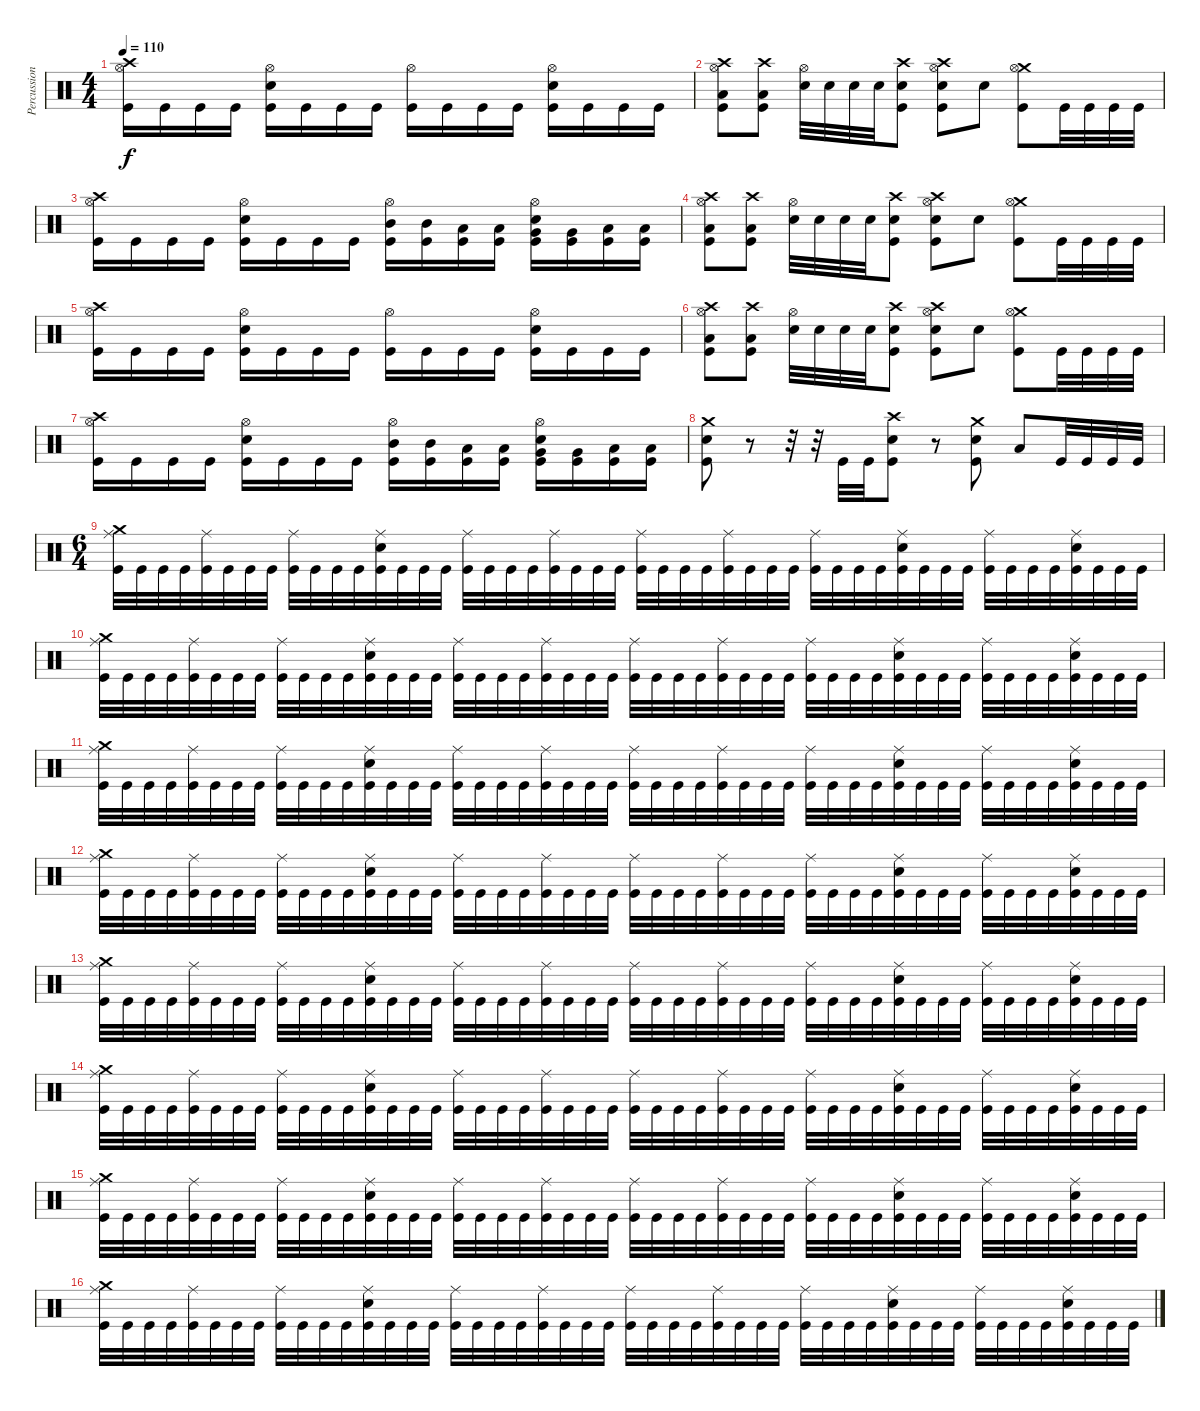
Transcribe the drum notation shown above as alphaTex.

\track ("Percussion" "Percussion") {instrument percussion}
\staff {score}
\articulation defaults
\ts (4 4)
\tempo 110
\clef neutral
\ks c
("Crash high (hit)" "Hi-Hat (open)" "Kick (hit)").16{dy f} "Kick (hit)".16 "Kick (hit)".16 "Kick (hit)".16 ("Electric Snare (hit)" "Hi-Hat (open)" "Kick (hit)").16 "Kick (hit)".16 "Kick (hit)".16 "Kick (hit)".16 ("Hi-Hat (open)" "Kick (hit)").16 "Kick (hit)".16 "Kick (hit)".16 "Kick (hit)".16 ("Electric Snare (hit)" "Hi-Hat (open)" "Kick (hit)").16 "Kick (hit)".16 "Kick (hit)".16 "Kick (hit)".16 |
("Crash high (hit)" "Low Floor Tom (hit)" "Hi-Hat (open)" "Kick (hit)").8 ("Crash high (hit)" "Low Floor Tom (hit)" "Kick (hit)").8 ("Electric Snare (hit)" "Hi-Hat (open)").32 "Electric Snare (hit)".32 "Electric Snare (hit)".32 "Electric Snare (hit)".32 ("Crash high (hit)" "Electric Snare (hit)" "Kick (hit)").8 ("Crash high (hit)" "Electric Snare (hit)" "Hi-Hat (open)" "Kick (hit)").8 "Electric Snare (hit)".8 ("Crash medium (hit)" "Hi-Hat (open)" "Kick (hit)").8 "Kick (hit)".32 "Kick (hit)".32 "Kick (hit)".32 "Kick (hit)".32 |
("Crash high (hit)" "Hi-Hat (open)" "Kick (hit)").16 "Kick (hit)".16 "Kick (hit)".16 "Kick (hit)".16 ("Electric Snare (hit)" "Hi-Hat (open)" "Kick (hit)").16 "Kick (hit)".16 "Kick (hit)".16 "Kick (hit)".16 ("Mid Tom (hit)" "Hi-Hat (open)" "Kick (hit)").16 ("Mid Tom (hit)" "Kick (hit)").16 ("Low Tom (hit)" "Kick (hit)").16 ("Low Tom (hit)" "Kick (hit)").16 ("Electric Snare (hit)" "Very Low Tom (hit)" "Hi-Hat (open)" "Kick (hit)").16 ("Very Low Tom (hit)" "Kick (hit)").16 ("Low Floor Tom (hit)" "Kick (hit)").16 ("Low Floor Tom (hit)" "Kick (hit)").16 |
("Crash high (hit)" "Low Floor Tom (hit)" "Hi-Hat (open)" "Kick (hit)").8 ("Crash high (hit)" "Low Floor Tom (hit)" "Kick (hit)").8 ("Electric Snare (hit)" "Hi-Hat (open)").32 "Electric Snare (hit)".32 "Electric Snare (hit)".32 "Electric Snare (hit)".32 ("Crash high (hit)" "Electric Snare (hit)" "Kick (hit)").8 ("Crash high (hit)" "Electric Snare (hit)" "Hi-Hat (open)" "Kick (hit)").8 "Electric Snare (hit)".8 ("Crash medium (hit)" "Hi-Hat (open)" "Kick (hit)").8 "Kick (hit)".32 "Kick (hit)".32 "Kick (hit)".32 "Kick (hit)".32 |
("Crash high (hit)" "Hi-Hat (open)" "Kick (hit)").16 "Kick (hit)".16 "Kick (hit)".16 "Kick (hit)".16 ("Electric Snare (hit)" "Hi-Hat (open)" "Kick (hit)").16 "Kick (hit)".16 "Kick (hit)".16 "Kick (hit)".16 ("Hi-Hat (open)" "Kick (hit)").16 "Kick (hit)".16 "Kick (hit)".16 "Kick (hit)".16 ("Electric Snare (hit)" "Hi-Hat (open)" "Kick (hit)").16 "Kick (hit)".16 "Kick (hit)".16 "Kick (hit)".16 |
("Crash high (hit)" "Low Floor Tom (hit)" "Hi-Hat (open)" "Kick (hit)").8 ("Crash high (hit)" "Low Floor Tom (hit)" "Kick (hit)").8 ("Electric Snare (hit)" "Hi-Hat (open)").32 "Electric Snare (hit)".32 "Electric Snare (hit)".32 "Electric Snare (hit)".32 ("Crash high (hit)" "Electric Snare (hit)" "Kick (hit)").8 ("Crash high (hit)" "Electric Snare (hit)" "Hi-Hat (open)" "Kick (hit)").8 "Electric Snare (hit)".8 ("Crash medium (hit)" "Hi-Hat (open)" "Kick (hit)").8 "Kick (hit)".32 "Kick (hit)".32 "Kick (hit)".32 "Kick (hit)".32 |
("Crash high (hit)" "Hi-Hat (open)" "Kick (hit)").16 "Kick (hit)".16 "Kick (hit)".16 "Kick (hit)".16 ("Electric Snare (hit)" "Hi-Hat (open)" "Kick (hit)").16 "Kick (hit)".16 "Kick (hit)".16 "Kick (hit)".16 ("Mid Tom (hit)" "Hi-Hat (open)" "Kick (hit)").16 ("Mid Tom (hit)" "Kick (hit)").16 ("Low Tom (hit)" "Kick (hit)").16 ("Low Tom (hit)" "Kick (hit)").16 ("Electric Snare (hit)" "Very Low Tom (hit)" "Hi-Hat (open)" "Kick (hit)").16 ("Very Low Tom (hit)" "Kick (hit)").16 ("Low Floor Tom (hit)" "Kick (hit)").16 ("Low Floor Tom (hit)" "Kick (hit)").16 |
("Crash medium (hit)" "Electric Snare (hit)" "Kick (hit)").8 r.8 r.32 r.32 "Kick (hit)".32 "Kick (hit)".32 ("Crash high (hit)" "Electric Snare (hit)" "Kick (hit)").8 r.8 ("Crash medium (hit)" "Electric Snare (hit)" "Kick (hit)").8 "Low Floor Tom (hit)".8 "Kick (hit)".32 "Kick (hit)".32 "Kick (hit)".32 "Kick (hit)".32 |
\ts (6 4)
("Crash medium (hit)" "Ride (middle)" "Kick (hit)").32 "Kick (hit)".32 "Kick (hit)".32 "Kick (hit)".32 ("Ride (middle)" "Kick (hit)").32 "Kick (hit)".32 "Kick (hit)".32 "Kick (hit)".32 ("Ride (middle)" "Kick (hit)").32 "Kick (hit)".32 "Kick (hit)".32 "Kick (hit)".32 ("Ride (middle)" "Electric Snare (hit)" "Kick (hit)").32 "Kick (hit)".32 "Kick (hit)".32 "Kick (hit)".32 ("Ride (middle)" "Kick (hit)").32 "Kick (hit)".32 "Kick (hit)".32 "Kick (hit)".32 ("Ride (middle)" "Kick (hit)").32 "Kick (hit)".32 "Kick (hit)".32 "Kick (hit)".32 ("Ride (middle)" "Kick (hit)").32 "Kick (hit)".32 "Kick (hit)".32 "Kick (hit)".32 ("Ride (middle)" "Kick (hit)").32 "Kick (hit)".32 "Kick (hit)".32 "Kick (hit)".32 ("Ride (middle)" "Kick (hit)").32 "Kick (hit)".32 "Kick (hit)".32 "Kick (hit)".32 ("Ride (middle)" "Electric Snare (hit)" "Kick (hit)").32 "Kick (hit)".32 "Kick (hit)".32 "Kick (hit)".32 ("Ride (middle)" "Kick (hit)").32 "Kick (hit)".32 "Kick (hit)".32 "Kick (hit)".32 ("Ride (middle)" "Electric Snare (hit)" "Kick (hit)").32 "Kick (hit)".32 "Kick (hit)".32 "Kick (hit)".32 |
("Crash medium (hit)" "Ride (middle)" "Kick (hit)").32 "Kick (hit)".32 "Kick (hit)".32 "Kick (hit)".32 ("Ride (middle)" "Kick (hit)").32 "Kick (hit)".32 "Kick (hit)".32 "Kick (hit)".32 ("Ride (middle)" "Kick (hit)").32 "Kick (hit)".32 "Kick (hit)".32 "Kick (hit)".32 ("Ride (middle)" "Electric Snare (hit)" "Kick (hit)").32 "Kick (hit)".32 "Kick (hit)".32 "Kick (hit)".32 ("Ride (middle)" "Kick (hit)").32 "Kick (hit)".32 "Kick (hit)".32 "Kick (hit)".32 ("Ride (middle)" "Kick (hit)").32 "Kick (hit)".32 "Kick (hit)".32 "Kick (hit)".32 ("Ride (middle)" "Kick (hit)").32 "Kick (hit)".32 "Kick (hit)".32 "Kick (hit)".32 ("Ride (middle)" "Kick (hit)").32 "Kick (hit)".32 "Kick (hit)".32 "Kick (hit)".32 ("Ride (middle)" "Kick (hit)").32 "Kick (hit)".32 "Kick (hit)".32 "Kick (hit)".32 ("Ride (middle)" "Electric Snare (hit)" "Kick (hit)").32 "Kick (hit)".32 "Kick (hit)".32 "Kick (hit)".32 ("Ride (middle)" "Kick (hit)").32 "Kick (hit)".32 "Kick (hit)".32 "Kick (hit)".32 ("Ride (middle)" "Electric Snare (hit)" "Kick (hit)").32 "Kick (hit)".32 "Kick (hit)".32 "Kick (hit)".32 |
("Crash medium (hit)" "Ride (middle)" "Kick (hit)").32 "Kick (hit)".32 "Kick (hit)".32 "Kick (hit)".32 ("Ride (middle)" "Kick (hit)").32 "Kick (hit)".32 "Kick (hit)".32 "Kick (hit)".32 ("Ride (middle)" "Kick (hit)").32 "Kick (hit)".32 "Kick (hit)".32 "Kick (hit)".32 ("Ride (middle)" "Electric Snare (hit)" "Kick (hit)").32 "Kick (hit)".32 "Kick (hit)".32 "Kick (hit)".32 ("Ride (middle)" "Kick (hit)").32 "Kick (hit)".32 "Kick (hit)".32 "Kick (hit)".32 ("Ride (middle)" "Kick (hit)").32 "Kick (hit)".32 "Kick (hit)".32 "Kick (hit)".32 ("Ride (middle)" "Kick (hit)").32 "Kick (hit)".32 "Kick (hit)".32 "Kick (hit)".32 ("Ride (middle)" "Kick (hit)").32 "Kick (hit)".32 "Kick (hit)".32 "Kick (hit)".32 ("Ride (middle)" "Kick (hit)").32 "Kick (hit)".32 "Kick (hit)".32 "Kick (hit)".32 ("Ride (middle)" "Electric Snare (hit)" "Kick (hit)").32 "Kick (hit)".32 "Kick (hit)".32 "Kick (hit)".32 ("Ride (middle)" "Kick (hit)").32 "Kick (hit)".32 "Kick (hit)".32 "Kick (hit)".32 ("Ride (middle)" "Electric Snare (hit)" "Kick (hit)").32 "Kick (hit)".32 "Kick (hit)".32 "Kick (hit)".32 |
("Crash medium (hit)" "Ride (middle)" "Kick (hit)").32 "Kick (hit)".32 "Kick (hit)".32 "Kick (hit)".32 ("Ride (middle)" "Kick (hit)").32 "Kick (hit)".32 "Kick (hit)".32 "Kick (hit)".32 ("Ride (middle)" "Kick (hit)").32 "Kick (hit)".32 "Kick (hit)".32 "Kick (hit)".32 ("Ride (middle)" "Electric Snare (hit)" "Kick (hit)").32 "Kick (hit)".32 "Kick (hit)".32 "Kick (hit)".32 ("Ride (middle)" "Kick (hit)").32 "Kick (hit)".32 "Kick (hit)".32 "Kick (hit)".32 ("Ride (middle)" "Kick (hit)").32 "Kick (hit)".32 "Kick (hit)".32 "Kick (hit)".32 ("Ride (middle)" "Kick (hit)").32 "Kick (hit)".32 "Kick (hit)".32 "Kick (hit)".32 ("Ride (middle)" "Kick (hit)").32 "Kick (hit)".32 "Kick (hit)".32 "Kick (hit)".32 ("Ride (middle)" "Kick (hit)").32 "Kick (hit)".32 "Kick (hit)".32 "Kick (hit)".32 ("Ride (middle)" "Electric Snare (hit)" "Kick (hit)").32 "Kick (hit)".32 "Kick (hit)".32 "Kick (hit)".32 ("Ride (middle)" "Kick (hit)").32 "Kick (hit)".32 "Kick (hit)".32 "Kick (hit)".32 ("Ride (middle)" "Electric Snare (hit)" "Kick (hit)").32 "Kick (hit)".32 "Kick (hit)".32 "Kick (hit)".32 |
("Crash medium (hit)" "Ride (middle)" "Kick (hit)").32 "Kick (hit)".32 "Kick (hit)".32 "Kick (hit)".32 ("Ride (middle)" "Kick (hit)").32 "Kick (hit)".32 "Kick (hit)".32 "Kick (hit)".32 ("Ride (middle)" "Kick (hit)").32 "Kick (hit)".32 "Kick (hit)".32 "Kick (hit)".32 ("Ride (middle)" "Electric Snare (hit)" "Kick (hit)").32 "Kick (hit)".32 "Kick (hit)".32 "Kick (hit)".32 ("Ride (middle)" "Kick (hit)").32 "Kick (hit)".32 "Kick (hit)".32 "Kick (hit)".32 ("Ride (middle)" "Kick (hit)").32 "Kick (hit)".32 "Kick (hit)".32 "Kick (hit)".32 ("Ride (middle)" "Kick (hit)").32 "Kick (hit)".32 "Kick (hit)".32 "Kick (hit)".32 ("Ride (middle)" "Kick (hit)").32 "Kick (hit)".32 "Kick (hit)".32 "Kick (hit)".32 ("Ride (middle)" "Kick (hit)").32 "Kick (hit)".32 "Kick (hit)".32 "Kick (hit)".32 ("Ride (middle)" "Electric Snare (hit)" "Kick (hit)").32 "Kick (hit)".32 "Kick (hit)".32 "Kick (hit)".32 ("Ride (middle)" "Kick (hit)").32 "Kick (hit)".32 "Kick (hit)".32 "Kick (hit)".32 ("Ride (middle)" "Electric Snare (hit)" "Kick (hit)").32 "Kick (hit)".32 "Kick (hit)".32 "Kick (hit)".32 |
("Crash medium (hit)" "Ride (middle)" "Kick (hit)").32 "Kick (hit)".32 "Kick (hit)".32 "Kick (hit)".32 ("Ride (middle)" "Kick (hit)").32 "Kick (hit)".32 "Kick (hit)".32 "Kick (hit)".32 ("Ride (middle)" "Kick (hit)").32 "Kick (hit)".32 "Kick (hit)".32 "Kick (hit)".32 ("Ride (middle)" "Electric Snare (hit)" "Kick (hit)").32 "Kick (hit)".32 "Kick (hit)".32 "Kick (hit)".32 ("Ride (middle)" "Kick (hit)").32 "Kick (hit)".32 "Kick (hit)".32 "Kick (hit)".32 ("Ride (middle)" "Kick (hit)").32 "Kick (hit)".32 "Kick (hit)".32 "Kick (hit)".32 ("Ride (middle)" "Kick (hit)").32 "Kick (hit)".32 "Kick (hit)".32 "Kick (hit)".32 ("Ride (middle)" "Kick (hit)").32 "Kick (hit)".32 "Kick (hit)".32 "Kick (hit)".32 ("Ride (middle)" "Kick (hit)").32 "Kick (hit)".32 "Kick (hit)".32 "Kick (hit)".32 ("Ride (middle)" "Electric Snare (hit)" "Kick (hit)").32 "Kick (hit)".32 "Kick (hit)".32 "Kick (hit)".32 ("Ride (middle)" "Kick (hit)").32 "Kick (hit)".32 "Kick (hit)".32 "Kick (hit)".32 ("Ride (middle)" "Electric Snare (hit)" "Kick (hit)").32 "Kick (hit)".32 "Kick (hit)".32 "Kick (hit)".32 |
("Crash medium (hit)" "Ride (middle)" "Kick (hit)").32 "Kick (hit)".32 "Kick (hit)".32 "Kick (hit)".32 ("Ride (middle)" "Kick (hit)").32 "Kick (hit)".32 "Kick (hit)".32 "Kick (hit)".32 ("Ride (middle)" "Kick (hit)").32 "Kick (hit)".32 "Kick (hit)".32 "Kick (hit)".32 ("Ride (middle)" "Electric Snare (hit)" "Kick (hit)").32 "Kick (hit)".32 "Kick (hit)".32 "Kick (hit)".32 ("Ride (middle)" "Kick (hit)").32 "Kick (hit)".32 "Kick (hit)".32 "Kick (hit)".32 ("Ride (middle)" "Kick (hit)").32 "Kick (hit)".32 "Kick (hit)".32 "Kick (hit)".32 ("Ride (middle)" "Kick (hit)").32 "Kick (hit)".32 "Kick (hit)".32 "Kick (hit)".32 ("Ride (middle)" "Kick (hit)").32 "Kick (hit)".32 "Kick (hit)".32 "Kick (hit)".32 ("Ride (middle)" "Kick (hit)").32 "Kick (hit)".32 "Kick (hit)".32 "Kick (hit)".32 ("Ride (middle)" "Electric Snare (hit)" "Kick (hit)").32 "Kick (hit)".32 "Kick (hit)".32 "Kick (hit)".32 ("Ride (middle)" "Kick (hit)").32 "Kick (hit)".32 "Kick (hit)".32 "Kick (hit)".32 ("Ride (middle)" "Electric Snare (hit)" "Kick (hit)").32 "Kick (hit)".32 "Kick (hit)".32 "Kick (hit)".32 |
("Crash medium (hit)" "Ride (middle)" "Kick (hit)").32 "Kick (hit)".32 "Kick (hit)".32 "Kick (hit)".32 ("Ride (middle)" "Kick (hit)").32 "Kick (hit)".32 "Kick (hit)".32 "Kick (hit)".32 ("Ride (middle)" "Kick (hit)").32 "Kick (hit)".32 "Kick (hit)".32 "Kick (hit)".32 ("Ride (middle)" "Electric Snare (hit)" "Kick (hit)").32 "Kick (hit)".32 "Kick (hit)".32 "Kick (hit)".32 ("Ride (middle)" "Kick (hit)").32 "Kick (hit)".32 "Kick (hit)".32 "Kick (hit)".32 ("Ride (middle)" "Kick (hit)").32 "Kick (hit)".32 "Kick (hit)".32 "Kick (hit)".32 ("Ride (middle)" "Kick (hit)").32 "Kick (hit)".32 "Kick (hit)".32 "Kick (hit)".32 ("Ride (middle)" "Kick (hit)").32 "Kick (hit)".32 "Kick (hit)".32 "Kick (hit)".32 ("Ride (middle)" "Kick (hit)").32 "Kick (hit)".32 "Kick (hit)".32 "Kick (hit)".32 ("Ride (middle)" "Electric Snare (hit)" "Kick (hit)").32 "Kick (hit)".32 "Kick (hit)".32 "Kick (hit)".32 ("Ride (middle)" "Kick (hit)").32 "Kick (hit)".32 "Kick (hit)".32 "Kick (hit)".32 ("Ride (middle)" "Electric Snare (hit)" "Kick (hit)").32 "Kick (hit)".32 "Kick (hit)".32 "Kick (hit)".32
